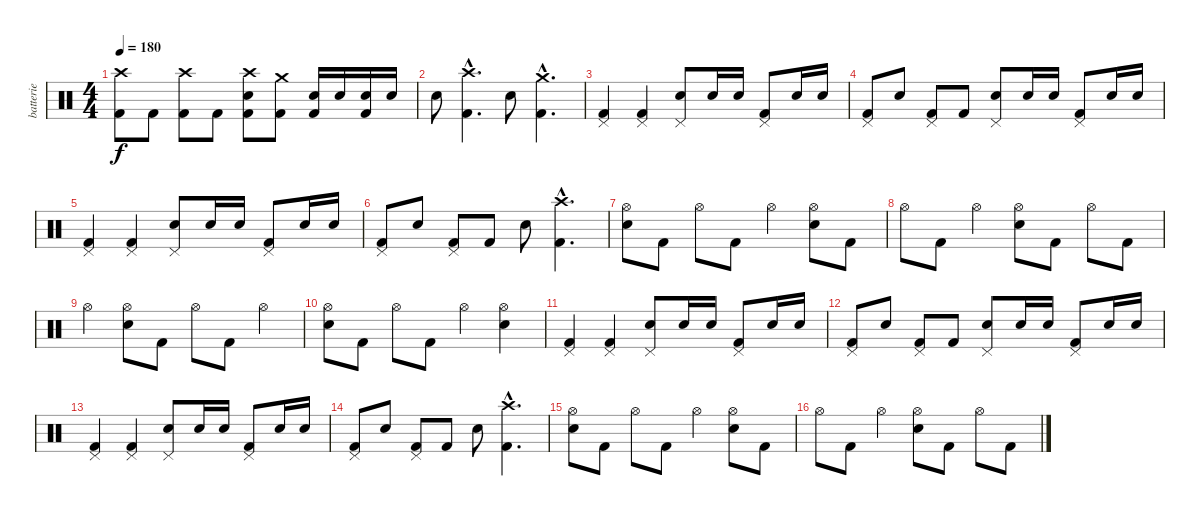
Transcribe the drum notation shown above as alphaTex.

\track ("batterie" "batterie") {instrument percussion}
\staff {score}
\articulation defaults
\ts (4 4)
\tempo 180
\clef neutral
\ks c
("Crash high (hit)" "Kick (hit) 2").8{dy f} "Kick (hit) 2".8 ("Crash high (hit)" "Kick (hit) 2").8 "Kick (hit) 2".8 ("Crash high (hit)" "Electric Snare (hit)" "Kick (hit) 2").8 ("Crash medium (hit)" "Kick (hit) 2").8 ("Electric Snare (hit)" "Kick (hit) 2").16 "Electric Snare (hit)".16 ("Electric Snare (hit)" "Kick (hit) 2").16 "Electric Snare (hit)".16 |
"Electric Snare (hit)".8 ("Crash high (hit)"{hac} "Kick (hit) 2"{hac}).4{d} "Electric Snare (hit)".8 ("Crash medium (hit)"{hac} "Kick (hit) 2"{hac}).4{d} |
("Pedal Hi-Hat (hit)" "Kick (hit) 2").4 ("Pedal Hi-Hat (hit)" "Kick (hit) 2").4 ("Pedal Hi-Hat (hit)" "Electric Snare (hit)").8 "Electric Snare (hit)".16 "Electric Snare (hit)".16 ("Pedal Hi-Hat (hit)" "Kick (hit) 2").8 "Electric Snare (hit)".16 "Electric Snare (hit)".16 |
("Pedal Hi-Hat (hit)" "Kick (hit) 2").8 "Electric Snare (hit)".8 ("Pedal Hi-Hat (hit)" "Kick (hit) 2").8 "Kick (hit) 2".8 ("Pedal Hi-Hat (hit)" "Electric Snare (hit)").8 "Electric Snare (hit)".16 "Electric Snare (hit)".16 ("Pedal Hi-Hat (hit)" "Kick (hit) 2").8 "Electric Snare (hit)".16 "Electric Snare (hit)".16 |
("Pedal Hi-Hat (hit)" "Kick (hit) 2").4 ("Pedal Hi-Hat (hit)" "Kick (hit) 2").4 ("Pedal Hi-Hat (hit)" "Electric Snare (hit)").8 "Electric Snare (hit)".16 "Electric Snare (hit)".16 ("Pedal Hi-Hat (hit)" "Kick (hit) 2").8 "Electric Snare (hit)".16 "Electric Snare (hit)".16 |
("Pedal Hi-Hat (hit)" "Kick (hit) 2").8 "Electric Snare (hit)".8 ("Pedal Hi-Hat (hit)" "Kick (hit) 2").8 "Kick (hit) 2".8 "Electric Snare (hit)".8 ("Crash high (hit)"{hac} "Kick (hit) 2"{hac}).4{d} |
("Hi-Hat (open)" "Electric Snare (hit)").8 "Kick (hit) 2".8 "Hi-Hat (open)".8 "Kick (hit) 2".8 "Hi-Hat (open)".4 ("Hi-Hat (open)" "Electric Snare (hit)").8 "Kick (hit) 2".8 |
"Hi-Hat (open)".8 "Kick (hit) 2".8 "Hi-Hat (open)".4 ("Hi-Hat (open)" "Electric Snare (hit)").8 "Kick (hit) 2".8 "Hi-Hat (open)".8 "Kick (hit) 2".8 |
"Hi-Hat (open)".4 ("Hi-Hat (open)" "Electric Snare (hit)").8 "Kick (hit) 2".8 "Hi-Hat (open)".8 "Kick (hit) 2".8 "Hi-Hat (open)".4 |
("Hi-Hat (open)" "Electric Snare (hit)").8 "Kick (hit) 2".8 "Hi-Hat (open)".8 "Kick (hit) 2".8 "Hi-Hat (open)".4 ("Hi-Hat (open)" "Electric Snare (hit)").4 |
("Pedal Hi-Hat (hit)" "Kick (hit) 2").4 ("Pedal Hi-Hat (hit)" "Kick (hit) 2").4 ("Pedal Hi-Hat (hit)" "Electric Snare (hit)").8 "Electric Snare (hit)".16 "Electric Snare (hit)".16 ("Pedal Hi-Hat (hit)" "Kick (hit) 2").8 "Electric Snare (hit)".16 "Electric Snare (hit)".16 |
("Pedal Hi-Hat (hit)" "Kick (hit) 2").8 "Electric Snare (hit)".8 ("Pedal Hi-Hat (hit)" "Kick (hit) 2").8 "Kick (hit) 2".8 ("Pedal Hi-Hat (hit)" "Electric Snare (hit)").8 "Electric Snare (hit)".16 "Electric Snare (hit)".16 ("Pedal Hi-Hat (hit)" "Kick (hit) 2").8 "Electric Snare (hit)".16 "Electric Snare (hit)".16 |
("Pedal Hi-Hat (hit)" "Kick (hit) 2").4 ("Pedal Hi-Hat (hit)" "Kick (hit) 2").4 ("Pedal Hi-Hat (hit)" "Electric Snare (hit)").8 "Electric Snare (hit)".16 "Electric Snare (hit)".16 ("Pedal Hi-Hat (hit)" "Kick (hit) 2").8 "Electric Snare (hit)".16 "Electric Snare (hit)".16 |
("Pedal Hi-Hat (hit)" "Kick (hit) 2").8 "Electric Snare (hit)".8 ("Pedal Hi-Hat (hit)" "Kick (hit) 2").8 "Kick (hit) 2".8 "Electric Snare (hit)".8 ("Crash high (hit)"{hac} "Kick (hit) 2"{hac}).4{d} |
("Hi-Hat (open)" "Electric Snare (hit)").8 "Kick (hit) 2".8 "Hi-Hat (open)".8 "Kick (hit) 2".8 "Hi-Hat (open)".4 ("Hi-Hat (open)" "Electric Snare (hit)").8 "Kick (hit) 2".8 |
"Hi-Hat (open)".8 "Kick (hit) 2".8 "Hi-Hat (open)".4 ("Hi-Hat (open)" "Electric Snare (hit)").8 "Kick (hit) 2".8 "Hi-Hat (open)".8 "Kick (hit) 2".8
